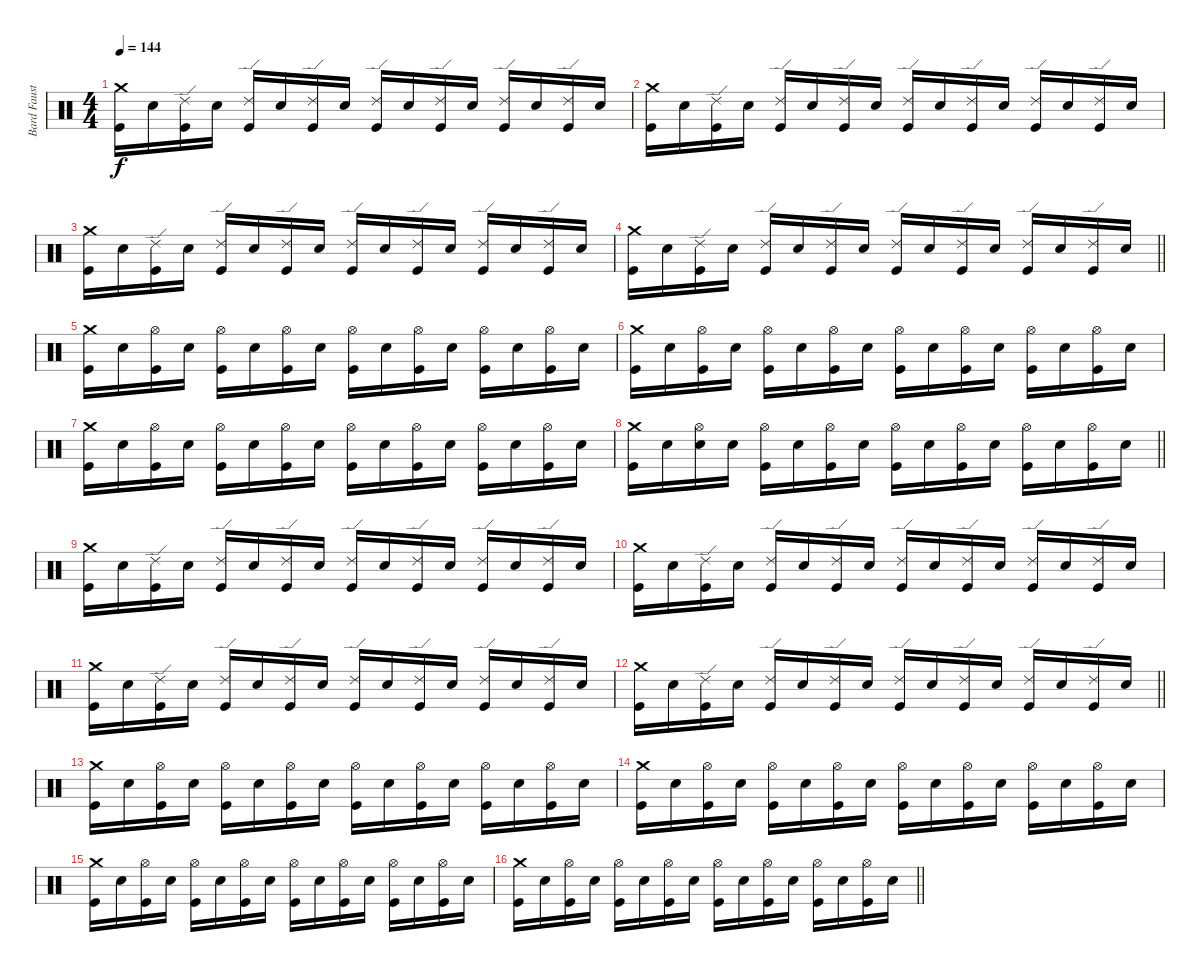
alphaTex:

\track ("Bard Faust" "Bard Faust") {instrument percussion}
\staff {score}
\articulation defaults
\ts (4 4)
\tempo 144
\clef neutral
\ks c
("Crash medium (hit)" "Kick (hit)").16{dy f} "Snare (hit) 2".16 ("Ride (edge) 2" "Kick (hit)").16 "Snare (hit) 2".16 ("Ride (edge) 2" "Kick (hit)").16 "Snare (hit) 2".16 ("Ride (edge) 2" "Kick (hit)").16 "Snare (hit) 2".16 ("Ride (edge) 2" "Kick (hit)").16 "Snare (hit) 2".16 ("Ride (edge) 2" "Kick (hit)").16 "Snare (hit) 2".16 ("Ride (edge) 2" "Kick (hit)").16 "Snare (hit) 2".16 ("Ride (edge) 2" "Kick (hit)").16 "Snare (hit) 2".16 |
("Crash medium (hit)" "Kick (hit)").16 "Snare (hit) 2".16 ("Ride (edge) 2" "Kick (hit)").16 "Snare (hit) 2".16 ("Ride (edge) 2" "Kick (hit)").16 "Snare (hit) 2".16 ("Ride (edge) 2" "Kick (hit)").16 "Snare (hit) 2".16 ("Ride (edge) 2" "Kick (hit)").16 "Snare (hit) 2".16 ("Ride (edge) 2" "Kick (hit)").16 "Snare (hit) 2".16 ("Ride (edge) 2" "Kick (hit)").16 "Snare (hit) 2".16 ("Ride (edge) 2" "Kick (hit)").16 "Snare (hit) 2".16 |
("Crash medium (hit)" "Kick (hit)").16 "Snare (hit) 2".16 ("Ride (edge) 2" "Kick (hit)").16 "Snare (hit) 2".16 ("Ride (edge) 2" "Kick (hit)").16 "Snare (hit) 2".16 ("Ride (edge) 2" "Kick (hit)").16 "Snare (hit) 2".16 ("Ride (edge) 2" "Kick (hit)").16 "Snare (hit) 2".16 ("Ride (edge) 2" "Kick (hit)").16 "Snare (hit) 2".16 ("Ride (edge) 2" "Kick (hit)").16 "Snare (hit) 2".16 ("Ride (edge) 2" "Kick (hit)").16 "Snare (hit) 2".16 |
\barLineRight lightlight
("Crash medium (hit)" "Kick (hit)").16 "Snare (hit) 2".16 ("Ride (edge) 2" "Kick (hit)").16 "Snare (hit) 2".16 ("Ride (edge) 2" "Kick (hit)").16 "Snare (hit) 2".16 ("Ride (edge) 2" "Kick (hit)").16 "Snare (hit) 2".16 ("Ride (edge) 2" "Kick (hit)").16 "Snare (hit) 2".16 ("Ride (edge) 2" "Kick (hit)").16 "Snare (hit) 2".16 ("Ride (edge) 2" "Kick (hit)").16 "Snare (hit) 2".16 ("Ride (edge) 2" "Kick (hit)").16 "Snare (hit) 2".16 |
\section ("" "")
("Crash medium (hit)" "Kick (hit)").16 "Snare (hit) 2".16 ("Hi-Hat (open)" "Kick (hit)").16 "Snare (hit) 2".16 ("Hi-Hat (open)" "Kick (hit)").16 "Snare (hit) 2".16 ("Hi-Hat (open)" "Kick (hit)").16 "Snare (hit) 2".16 ("Hi-Hat (open)" "Kick (hit)").16 "Snare (hit) 2".16 ("Hi-Hat (open)" "Kick (hit)").16 "Snare (hit) 2".16 ("Hi-Hat (open)" "Kick (hit)").16 "Snare (hit) 2".16 ("Hi-Hat (open)" "Kick (hit)").16 "Snare (hit) 2".16 |
("Crash medium (hit)" "Kick (hit)").16 "Snare (hit) 2".16 ("Hi-Hat (open)" "Kick (hit)").16 "Snare (hit) 2".16 ("Hi-Hat (open)" "Kick (hit)").16 "Snare (hit) 2".16 ("Hi-Hat (open)" "Kick (hit)").16 "Snare (hit) 2".16 ("Hi-Hat (open)" "Kick (hit)").16 "Snare (hit) 2".16 ("Hi-Hat (open)" "Kick (hit)").16 "Snare (hit) 2".16 ("Hi-Hat (open)" "Kick (hit)").16 "Snare (hit) 2".16 ("Hi-Hat (open)" "Kick (hit)").16 "Snare (hit) 2".16 |
("Crash medium (hit)" "Kick (hit)").16 "Snare (hit) 2".16 ("Hi-Hat (open)" "Kick (hit)").16 "Snare (hit) 2".16 ("Hi-Hat (open)" "Kick (hit)").16 "Snare (hit) 2".16 ("Hi-Hat (open)" "Kick (hit)").16 "Snare (hit) 2".16 ("Hi-Hat (open)" "Kick (hit)").16 "Snare (hit) 2".16 ("Hi-Hat (open)" "Kick (hit)").16 "Snare (hit) 2".16 ("Hi-Hat (open)" "Kick (hit)").16 "Snare (hit) 2".16 ("Hi-Hat (open)" "Kick (hit)").16 "Snare (hit) 2".16 |
\barLineRight lightlight
("Crash medium (hit)" "Kick (hit)").16 "Snare (hit) 2".16 ("Hi-Hat (open)" "Snare (hit) 2").16 "Snare (hit) 2".16 ("Hi-Hat (open)" "Kick (hit)").16 "Snare (hit) 2".16 ("Hi-Hat (open)" "Kick (hit)").16 "Snare (hit) 2".16 ("Hi-Hat (open)" "Kick (hit)").16 "Snare (hit) 2".16 ("Hi-Hat (open)" "Kick (hit)").16 "Snare (hit) 2".16 ("Hi-Hat (open)" "Kick (hit)").16 "Snare (hit) 2".16 ("Hi-Hat (open)" "Kick (hit)").16 "Snare (hit) 2".16 |
\section ("" "")
("Crash medium (hit)" "Kick (hit)").16 "Snare (hit) 2".16 ("Ride (edge) 2" "Kick (hit)").16 "Snare (hit) 2".16 ("Ride (edge) 2" "Kick (hit)").16 "Snare (hit) 2".16 ("Ride (edge) 2" "Kick (hit)").16 "Snare (hit) 2".16 ("Ride (edge) 2" "Kick (hit)").16 "Snare (hit) 2".16 ("Ride (edge) 2" "Kick (hit)").16 "Snare (hit) 2".16 ("Ride (edge) 2" "Kick (hit)").16 "Snare (hit) 2".16 ("Ride (edge) 2" "Kick (hit)").16 "Snare (hit) 2".16 |
("Crash medium (hit)" "Kick (hit)").16 "Snare (hit) 2".16 ("Ride (edge) 2" "Kick (hit)").16 "Snare (hit) 2".16 ("Ride (edge) 2" "Kick (hit)").16 "Snare (hit) 2".16 ("Ride (edge) 2" "Kick (hit)").16 "Snare (hit) 2".16 ("Ride (edge) 2" "Kick (hit)").16 "Snare (hit) 2".16 ("Ride (edge) 2" "Kick (hit)").16 "Snare (hit) 2".16 ("Ride (edge) 2" "Kick (hit)").16 "Snare (hit) 2".16 ("Ride (edge) 2" "Kick (hit)").16 "Snare (hit) 2".16 |
("Crash medium (hit)" "Kick (hit)").16 "Snare (hit) 2".16 ("Ride (edge) 2" "Kick (hit)").16 "Snare (hit) 2".16 ("Ride (edge) 2" "Kick (hit)").16 "Snare (hit) 2".16 ("Ride (edge) 2" "Kick (hit)").16 "Snare (hit) 2".16 ("Ride (edge) 2" "Kick (hit)").16 "Snare (hit) 2".16 ("Ride (edge) 2" "Kick (hit)").16 "Snare (hit) 2".16 ("Ride (edge) 2" "Kick (hit)").16 "Snare (hit) 2".16 ("Ride (edge) 2" "Kick (hit)").16 "Snare (hit) 2".16 |
\barLineRight lightlight
("Crash medium (hit)" "Kick (hit)").16 "Snare (hit) 2".16 ("Ride (edge) 2" "Kick (hit)").16 "Snare (hit) 2".16 ("Ride (edge) 2" "Kick (hit)").16 "Snare (hit) 2".16 ("Ride (edge) 2" "Kick (hit)").16 "Snare (hit) 2".16 ("Ride (edge) 2" "Kick (hit)").16 "Snare (hit) 2".16 ("Ride (edge) 2" "Kick (hit)").16 "Snare (hit) 2".16 ("Ride (edge) 2" "Kick (hit)").16 "Snare (hit) 2".16 ("Ride (edge) 2" "Kick (hit)").16 "Snare (hit) 2".16 |
\section ("" "")
("Crash medium (hit)" "Kick (hit)").16 "Snare (hit) 2".16 ("Hi-Hat (open)" "Kick (hit)").16 "Snare (hit) 2".16 ("Hi-Hat (open)" "Kick (hit)").16 "Snare (hit) 2".16 ("Hi-Hat (open)" "Kick (hit)").16 "Snare (hit) 2".16 ("Hi-Hat (open)" "Kick (hit)").16 "Snare (hit) 2".16 ("Hi-Hat (open)" "Kick (hit)").16 "Snare (hit) 2".16 ("Hi-Hat (open)" "Kick (hit)").16 "Snare (hit) 2".16 ("Hi-Hat (open)" "Kick (hit)").16 "Snare (hit) 2".16 |
("Crash medium (hit)" "Kick (hit)").16 "Snare (hit) 2".16 ("Hi-Hat (open)" "Kick (hit)").16 "Snare (hit) 2".16 ("Hi-Hat (open)" "Kick (hit)").16 "Snare (hit) 2".16 ("Hi-Hat (open)" "Kick (hit)").16 "Snare (hit) 2".16 ("Hi-Hat (open)" "Kick (hit)").16 "Snare (hit) 2".16 ("Hi-Hat (open)" "Kick (hit)").16 "Snare (hit) 2".16 ("Hi-Hat (open)" "Kick (hit)").16 "Snare (hit) 2".16 ("Hi-Hat (open)" "Kick (hit)").16 "Snare (hit) 2".16 |
("Crash medium (hit)" "Kick (hit)").16 "Snare (hit) 2".16 ("Hi-Hat (open)" "Kick (hit)").16 "Snare (hit) 2".16 ("Hi-Hat (open)" "Kick (hit)").16 "Snare (hit) 2".16 ("Hi-Hat (open)" "Kick (hit)").16 "Snare (hit) 2".16 ("Hi-Hat (open)" "Kick (hit)").16 "Snare (hit) 2".16 ("Hi-Hat (open)" "Kick (hit)").16 "Snare (hit) 2".16 ("Hi-Hat (open)" "Kick (hit)").16 "Snare (hit) 2".16 ("Hi-Hat (open)" "Kick (hit)").16 "Snare (hit) 2".16 |
\barLineRight lightlight
("Crash medium (hit)" "Kick (hit)").16 "Snare (hit) 2".16 ("Hi-Hat (open)" "Kick (hit)").16 "Snare (hit) 2".16 ("Hi-Hat (open)" "Kick (hit)").16 "Snare (hit) 2".16 ("Hi-Hat (open)" "Kick (hit)").16 "Snare (hit) 2".16 ("Hi-Hat (open)" "Kick (hit)").16 "Snare (hit) 2".16 ("Hi-Hat (open)" "Kick (hit)").16 "Snare (hit) 2".16 ("Hi-Hat (open)" "Kick (hit)").16 "Snare (hit) 2".16 ("Hi-Hat (open)" "Kick (hit)").16 "Snare (hit) 2".16
